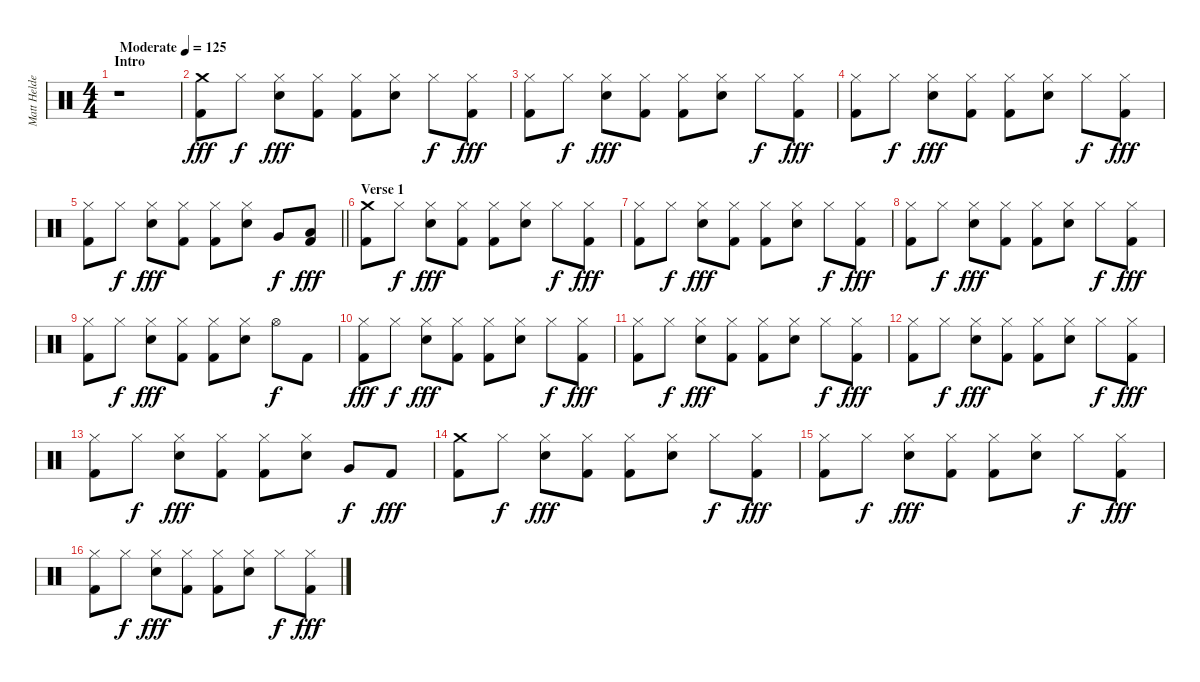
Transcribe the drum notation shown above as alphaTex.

\track ("Matt Helders" "Matt Helde") {instrument percussion}
\staff {score}
\articulation defaults
\ts (4 4)
\section ("" "Intro")
\tempo (125 "Moderate")
\clef neutral
\ks c
r.1{dy fff} |
("Crash medium (hit)" "Kick (hit) 2").8 "Hi-Hat (closed)".8{dy f} ("Hi-Hat (closed)" "Electric Snare (hit)").8{dy fff} ("Hi-Hat (closed)" "Kick (hit) 2").8 ("Hi-Hat (closed)" "Kick (hit) 2").8 ("Hi-Hat (closed)" "Electric Snare (hit)").8 "Hi-Hat (closed)".8{dy f} ("Hi-Hat (closed)" "Kick (hit) 2").8{dy fff} |
("Hi-Hat (closed)" "Kick (hit) 2").8 "Hi-Hat (closed)".8{dy f} ("Hi-Hat (closed)" "Electric Snare (hit)").8{dy fff} ("Hi-Hat (closed)" "Kick (hit) 2").8 ("Hi-Hat (closed)" "Kick (hit) 2").8 ("Hi-Hat (closed)" "Electric Snare (hit)").8 "Hi-Hat (closed)".8{dy f} ("Hi-Hat (closed)" "Kick (hit) 2").8{dy fff} |
("Hi-Hat (closed)" "Kick (hit) 2").8 "Hi-Hat (closed)".8{dy f} ("Hi-Hat (closed)" "Electric Snare (hit)").8{dy fff} ("Hi-Hat (closed)" "Kick (hit) 2").8 ("Hi-Hat (closed)" "Kick (hit) 2").8 ("Hi-Hat (closed)" "Electric Snare (hit)").8 "Hi-Hat (closed)".8{dy f} ("Hi-Hat (closed)" "Kick (hit) 2").8{dy fff} |
\barLineRight lightlight
("Hi-Hat (closed)" "Kick (hit) 2").8 "Hi-Hat (closed)".8{dy f} ("Hi-Hat (closed)" "Electric Snare (hit)").8{dy fff} ("Hi-Hat (closed)" "Kick (hit) 2").8 ("Hi-Hat (closed)" "Kick (hit) 2").8 ("Hi-Hat (closed)" "Electric Snare (hit)").8 "Very Low Tom (hit)".8{dy f} ("Low Floor Tom (hit)" "Kick (hit) 2").8{dy fff} |
\section ("" "Verse 1")
("Crash medium (hit)" "Kick (hit) 2").8 "Hi-Hat (closed)".8{dy f} ("Hi-Hat (closed)" "Electric Snare (hit)").8{dy fff} ("Hi-Hat (closed)" "Kick (hit) 2").8 ("Hi-Hat (closed)" "Kick (hit) 2").8 ("Hi-Hat (closed)" "Electric Snare (hit)").8 "Hi-Hat (closed)".8{dy f} ("Hi-Hat (closed)" "Kick (hit) 2").8{dy fff} |
("Hi-Hat (closed)" "Kick (hit) 2").8 "Hi-Hat (closed)".8{dy f} ("Hi-Hat (closed)" "Electric Snare (hit)").8{dy fff} ("Hi-Hat (closed)" "Kick (hit) 2").8 ("Hi-Hat (closed)" "Kick (hit) 2").8 ("Hi-Hat (closed)" "Electric Snare (hit)").8 "Hi-Hat (closed)".8{dy f} ("Hi-Hat (closed)" "Kick (hit) 2").8{dy fff} |
("Hi-Hat (closed)" "Kick (hit) 2").8 "Hi-Hat (closed)".8{dy f} ("Hi-Hat (closed)" "Electric Snare (hit)").8{dy fff} ("Hi-Hat (closed)" "Kick (hit) 2").8 ("Hi-Hat (closed)" "Kick (hit) 2").8 ("Hi-Hat (closed)" "Electric Snare (hit)").8 "Hi-Hat (closed)".8{dy f} ("Hi-Hat (closed)" "Kick (hit) 2").8{dy fff} |
("Hi-Hat (closed)" "Kick (hit) 2").8 "Hi-Hat (closed)".8{dy f} ("Hi-Hat (closed)" "Electric Snare (hit)").8{dy fff} ("Hi-Hat (closed)" "Kick (hit) 2").8 ("Hi-Hat (closed)" "Kick (hit) 2").8 ("Hi-Hat (closed)" "Electric Snare (hit)").8 "Hi-Hat (open)".8{dy f} "Kick (hit) 2".8 |
("Hi-Hat (closed)" "Kick (hit) 2").8{dy fff} "Hi-Hat (closed)".8{dy f} ("Hi-Hat (closed)" "Electric Snare (hit)").8{dy fff} ("Hi-Hat (closed)" "Kick (hit) 2").8 ("Hi-Hat (closed)" "Kick (hit) 2").8 ("Hi-Hat (closed)" "Electric Snare (hit)").8 "Hi-Hat (closed)".8{dy f} ("Hi-Hat (closed)" "Kick (hit) 2").8{dy fff} |
("Hi-Hat (closed)" "Kick (hit) 2").8 "Hi-Hat (closed)".8{dy f} ("Hi-Hat (closed)" "Electric Snare (hit)").8{dy fff} ("Hi-Hat (closed)" "Kick (hit) 2").8 ("Hi-Hat (closed)" "Kick (hit) 2").8 ("Hi-Hat (closed)" "Electric Snare (hit)").8 "Hi-Hat (closed)".8{dy f} ("Hi-Hat (closed)" "Kick (hit) 2").8{dy fff} |
("Hi-Hat (closed)" "Kick (hit) 2").8 "Hi-Hat (closed)".8{dy f} ("Hi-Hat (closed)" "Electric Snare (hit)").8{dy fff} ("Hi-Hat (closed)" "Kick (hit) 2").8 ("Hi-Hat (closed)" "Kick (hit) 2").8 ("Hi-Hat (closed)" "Electric Snare (hit)").8 "Hi-Hat (closed)".8{dy f} ("Hi-Hat (closed)" "Kick (hit) 2").8{dy fff} |
("Hi-Hat (closed)" "Kick (hit) 2").8 "Hi-Hat (closed)".8{dy f} ("Hi-Hat (closed)" "Electric Snare (hit)").8{dy fff} ("Hi-Hat (closed)" "Kick (hit) 2").8 ("Hi-Hat (closed)" "Kick (hit) 2").8 ("Hi-Hat (closed)" "Electric Snare (hit)").8 "Very Low Tom (hit)".8{dy f} "Kick (hit) 2".8{dy fff} |
("Crash medium (hit)" "Kick (hit) 2").8 "Hi-Hat (closed)".8{dy f} ("Hi-Hat (closed)" "Electric Snare (hit)").8{dy fff} ("Hi-Hat (closed)" "Kick (hit) 2").8 ("Hi-Hat (closed)" "Kick (hit) 2").8 ("Hi-Hat (closed)" "Electric Snare (hit)").8 "Hi-Hat (closed)".8{dy f} ("Hi-Hat (closed)" "Kick (hit) 2").8{dy fff} |
("Hi-Hat (closed)" "Kick (hit) 2").8 "Hi-Hat (closed)".8{dy f} ("Hi-Hat (closed)" "Electric Snare (hit)").8{dy fff} ("Hi-Hat (closed)" "Kick (hit) 2").8 ("Hi-Hat (closed)" "Kick (hit) 2").8 ("Hi-Hat (closed)" "Electric Snare (hit)").8 "Hi-Hat (closed)".8{dy f} ("Hi-Hat (closed)" "Kick (hit) 2").8{dy fff} |
("Hi-Hat (closed)" "Kick (hit) 2").8 "Hi-Hat (closed)".8{dy f} ("Hi-Hat (closed)" "Electric Snare (hit)").8{dy fff} ("Hi-Hat (closed)" "Kick (hit) 2").8 ("Hi-Hat (closed)" "Kick (hit) 2").8 ("Hi-Hat (closed)" "Electric Snare (hit)").8 "Hi-Hat (closed)".8{dy f} ("Hi-Hat (closed)" "Kick (hit) 2").8{dy fff}
